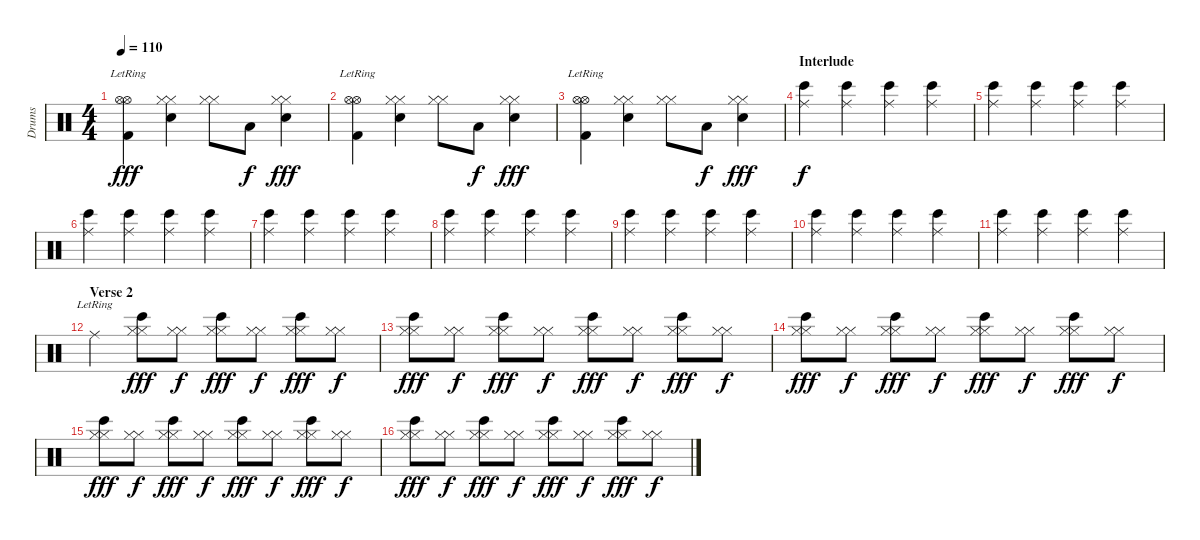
\track ("Drums" "Drums") {instrument percussion}
\staff {score}
\articulation defaults
\ts (4 4)
\tempo 110
\clef neutral
\ks c
("Hi-Hat (open)"{lr} "Hi-Hat (open)"{lr} "Kick (hit) 2").4{dy fff} ("Hi-Hat (closed)" "Hi-Hat (closed)" "Electric Snare (hit)").4 ("Hi-Hat (closed)" "Hi-Hat (closed)").8 "Low Tom (hit)".8{dy f} ("Hi-Hat (closed)" "Hi-Hat (closed)" "Electric Snare (hit)").4{dy fff} |
("Hi-Hat (open)"{lr} "Hi-Hat (open)"{lr} "Kick (hit) 2").4 ("Hi-Hat (closed)" "Hi-Hat (closed)" "Electric Snare (hit)").4 ("Hi-Hat (closed)" "Hi-Hat (closed)").8 "Low Tom (hit)".8{dy f} ("Hi-Hat (closed)" "Hi-Hat (closed)" "Electric Snare (hit)").4{dy fff} |
("Hi-Hat (open)"{lr} "Hi-Hat (open)"{lr} "Kick (hit) 2").4 ("Hi-Hat (closed)" "Hi-Hat (closed)" "Electric Snare (hit)").4 ("Hi-Hat (closed)" "Hi-Hat (closed)").8 "Low Tom (hit)".8{dy f} ("Hi-Hat (closed)" "Hi-Hat (closed)" "Electric Snare (hit)").4{dy fff} |
\section ("" "Interlude")
("Ride (middle)" "Bongo High (hit)").4{dy f} ("Ride (middle)" "Bongo High (hit)").4 ("Ride (middle)" "Bongo High (hit)").4 ("Ride (middle)" "Bongo High (hit)").4 |
("Ride (middle)" "Bongo High (hit)").4 ("Ride (middle)" "Bongo High (hit)").4 ("Ride (middle)" "Bongo High (hit)").4 ("Ride (middle)" "Bongo High (hit)").4 |
("Ride (middle)" "Bongo High (hit)").4 ("Ride (middle)" "Bongo High (hit)").4 ("Ride (middle)" "Bongo High (hit)").4 ("Ride (middle)" "Bongo High (hit)").4 |
("Ride (middle)" "Bongo High (hit)").4 ("Ride (middle)" "Bongo High (hit)").4 ("Ride (middle)" "Bongo High (hit)").4 ("Ride (middle)" "Bongo High (hit)").4 |
("Ride (middle)" "Bongo High (hit)").4 ("Ride (middle)" "Bongo High (hit)").4 ("Ride (middle)" "Bongo High (hit)").4 ("Ride (middle)" "Bongo High (hit)").4 |
("Ride (middle)" "Bongo High (hit)").4 ("Ride (middle)" "Bongo High (hit)").4 ("Ride (middle)" "Bongo High (hit)").4 ("Ride (middle)" "Bongo High (hit)").4 |
("Ride (middle)" "Bongo High (hit)").4 ("Ride (middle)" "Bongo High (hit)").4 ("Ride (middle)" "Bongo High (hit)").4 ("Ride (middle)" "Bongo High (hit)").4 |
("Ride (middle)" "Bongo High (hit)").4 ("Ride (middle)" "Bongo High (hit)").4 ("Ride (middle)" "Bongo High (hit)").4 ("Ride (middle)" "Bongo High (hit)").4 |
\section ("" "Verse 2")
"Ride (middle)"{lr}.4 ("Hi-Hat (closed)" "Hi-Hat (closed)" "Bongo High (hit)").8{dy fff} ("Hi-Hat (closed)" "Hi-Hat (closed)").8{dy f} ("Hi-Hat (closed)" "Hi-Hat (closed)" "Bongo High (hit)").8{dy fff} ("Hi-Hat (closed)" "Hi-Hat (closed)").8{dy f} ("Hi-Hat (closed)" "Hi-Hat (closed)" "Bongo High (hit)").8{dy fff} ("Hi-Hat (closed)" "Hi-Hat (closed)").8{dy f} |
("Hi-Hat (closed)" "Hi-Hat (closed)" "Bongo High (hit)").8{dy fff} ("Hi-Hat (closed)" "Hi-Hat (closed)").8{dy f} ("Hi-Hat (closed)" "Hi-Hat (closed)" "Bongo High (hit)").8{dy fff} ("Hi-Hat (closed)" "Hi-Hat (closed)").8{dy f} ("Hi-Hat (closed)" "Hi-Hat (closed)" "Bongo High (hit)").8{dy fff} ("Hi-Hat (closed)" "Hi-Hat (closed)").8{dy f} ("Hi-Hat (closed)" "Hi-Hat (closed)" "Bongo High (hit)").8{dy fff} ("Hi-Hat (closed)" "Hi-Hat (closed)").8{dy f} |
("Hi-Hat (closed)" "Hi-Hat (closed)" "Bongo High (hit)").8{dy fff} ("Hi-Hat (closed)" "Hi-Hat (closed)").8{dy f} ("Hi-Hat (closed)" "Hi-Hat (closed)" "Bongo High (hit)").8{dy fff} ("Hi-Hat (closed)" "Hi-Hat (closed)").8{dy f} ("Hi-Hat (closed)" "Hi-Hat (closed)" "Bongo High (hit)").8{dy fff} ("Hi-Hat (closed)" "Hi-Hat (closed)").8{dy f} ("Hi-Hat (closed)" "Hi-Hat (closed)" "Bongo High (hit)").8{dy fff} ("Hi-Hat (closed)" "Hi-Hat (closed)").8{dy f} |
("Hi-Hat (closed)" "Hi-Hat (closed)" "Bongo High (hit)").8{dy fff} ("Hi-Hat (closed)" "Hi-Hat (closed)").8{dy f} ("Hi-Hat (closed)" "Hi-Hat (closed)" "Bongo High (hit)").8{dy fff} ("Hi-Hat (closed)" "Hi-Hat (closed)").8{dy f} ("Hi-Hat (closed)" "Hi-Hat (closed)" "Bongo High (hit)").8{dy fff} ("Hi-Hat (closed)" "Hi-Hat (closed)").8{dy f} ("Hi-Hat (closed)" "Hi-Hat (closed)" "Bongo High (hit)").8{dy fff} ("Hi-Hat (closed)" "Hi-Hat (closed)").8{dy f} |
("Hi-Hat (closed)" "Hi-Hat (closed)" "Bongo High (hit)").8{dy fff} ("Hi-Hat (closed)" "Hi-Hat (closed)").8{dy f} ("Hi-Hat (closed)" "Hi-Hat (closed)" "Bongo High (hit)").8{dy fff} ("Hi-Hat (closed)" "Hi-Hat (closed)").8{dy f} ("Hi-Hat (closed)" "Hi-Hat (closed)" "Bongo High (hit)").8{dy fff} ("Hi-Hat (closed)" "Hi-Hat (closed)").8{dy f} ("Hi-Hat (closed)" "Hi-Hat (closed)" "Bongo High (hit)").8{dy fff} ("Hi-Hat (closed)" "Hi-Hat (closed)").8{dy f}
